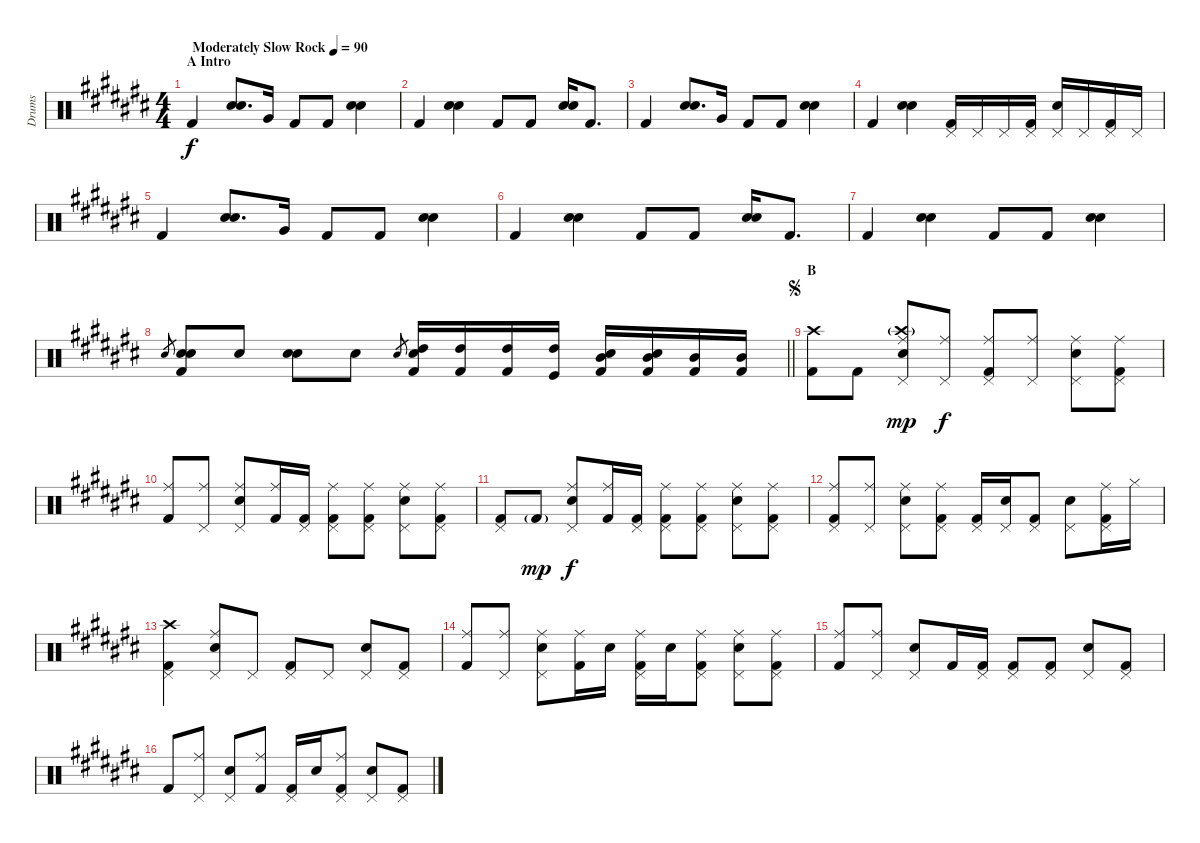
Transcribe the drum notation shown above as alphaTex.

\track ("Drums" "Drums") {instrument percussion}
\staff {score}
\articulation defaults
\ts (4 4)
\section ("" "A Intro")
\tempo (90 "Moderately Slow Rock")
\clef neutral
\ks c# "Kick (hit) 2".4{dy f}
("Hand Clap (hit)" "Snare (hit) 2").8{d} "Very Low Tom (hit)".16 "Kick (hit) 2".8 "Kick (hit) 2".8 ("Hand Clap (hit)" "Snare (hit) 2").4 |
"Kick (hit) 2".4 ("Hand Clap (hit)" "Snare (hit) 2").4 "Kick (hit) 2".8 "Kick (hit) 2".8 ("Hand Clap (hit)" "Snare (hit) 2").16 "Kick (hit) 2".8{d} |
"Kick (hit) 2".4 ("Hand Clap (hit)" "Snare (hit) 2").8{d} "Very Low Tom (hit)".16 "Kick (hit) 2".8 "Kick (hit) 2".8 ("Hand Clap (hit)" "Snare (hit) 2").4 |
"Kick (hit) 2".4 ("Hand Clap (hit)" "Snare (hit) 2").4 ("Kick (hit) 2" "Pedal Hi-Hat (hit)").16 "Pedal Hi-Hat (hit)".16 "Pedal Hi-Hat (hit)".16 ("Kick (hit) 2" "Pedal Hi-Hat (hit)").16 ("Snare (hit) 2" "Pedal Hi-Hat (hit)").16 "Pedal Hi-Hat (hit)".16 ("Kick (hit) 2" "Pedal Hi-Hat (hit)").16 "Pedal Hi-Hat (hit)".16 |
"Kick (hit) 2".4 ("Hand Clap (hit)" "Snare (hit) 2").8{d} "Very Low Tom (hit)".16 "Kick (hit) 2".8 "Kick (hit) 2".8 ("Hand Clap (hit)" "Snare (hit) 2").4 |
"Kick (hit) 2".4 ("Hand Clap (hit)" "Snare (hit) 2").4 "Kick (hit) 2".8 "Kick (hit) 2".8 ("Hand Clap (hit)" "Snare (hit) 2").16 "Kick (hit) 2".8{d} |
"Kick (hit) 2".4 ("Hand Clap (hit)" "Snare (hit) 2").4 "Kick (hit) 2".8 "Kick (hit) 2".8 ("Hand Clap (hit)" "Snare (hit) 2").4 |
\barLineRight lightlight "Snare (hit) 2".8{gr}
("Kick (hit) 2" "Snare (hit) 2" "Hand Clap (hit)").8 "Snare (hit) 2".8 ("Hand Clap (hit)" "Snare (hit) 2").8 "Snare (hit) 2".8 "Snare (hit) 2".8{gr} ("Kick (hit) 2" "Snare (hit) 2" "High Tom (hit)").16 ("Kick (hit) 2" "High Tom (hit)").16 ("Kick (hit) 2" "High Tom (hit)").16 ("Kick (hit)" "High Tom (hit)").16 ("Kick (hit) 2" "Mid Tom (hit)" "Hand Clap (hit)").16 ("Kick (hit) 2" "Snare (hit) 2" "Mid Tom (hit)").16 ("Kick (hit) 2" "Mid Tom (hit)").16 ("Kick (hit) 2" "Mid Tom (hit)").16 |
\section ("" "B")
\jump segno
("Kick (hit) 2" "Crash high (hit)").8 "Kick (hit) 2".8 ("Snare (hit) 2" "Pedal Hi-Hat (hit)" "Crash high (hit)"{g} "Ride (middle)").8{dy mp} ("Pedal Hi-Hat (hit)" "Ride (middle)").8{dy f} ("Kick (hit) 2" "Pedal Hi-Hat (hit)" "Ride (middle)").8 ("Pedal Hi-Hat (hit)" "Ride (middle)").8 ("Snare (hit) 2" "Pedal Hi-Hat (hit)" "Ride (middle)").8 ("Kick (hit) 2" "Pedal Hi-Hat (hit)" "Ride (middle)").8 |
("Kick (hit) 2" "Ride (middle)").8 ("Pedal Hi-Hat (hit)" "Ride (middle)").8 ("Snare (hit) 2" "Pedal Hi-Hat (hit)" "Ride (middle)").8 ("Kick (hit) 2" "Ride (middle)").16 ("Kick (hit) 2" "Pedal Hi-Hat (hit)").16 ("Kick (hit) 2" "Pedal Hi-Hat (hit)" "Ride (middle)").8 ("Kick (hit) 2" "Pedal Hi-Hat (hit)" "Ride (middle)").8 ("Snare (hit) 2" "Pedal Hi-Hat (hit)" "Ride (middle)").8 ("Kick (hit) 2" "Pedal Hi-Hat (hit)" "Ride (middle)").8 |
("Kick (hit) 2" "Pedal Hi-Hat (hit)").8 "Kick (hit) 2"{g}.8{dy mp} ("Snare (hit) 2" "Pedal Hi-Hat (hit)" "Ride (middle)").8{dy f} ("Kick (hit) 2" "Ride (middle)").16 ("Kick (hit) 2" "Pedal Hi-Hat (hit)").16 ("Kick (hit) 2" "Pedal Hi-Hat (hit)" "Ride (middle)").8 ("Kick (hit) 2" "Pedal Hi-Hat (hit)" "Ride (middle)").8 ("Snare (hit) 2" "Pedal Hi-Hat (hit)" "Ride (middle)").8 ("Kick (hit) 2" "Pedal Hi-Hat (hit)" "Ride (middle)").8 |
("Kick (hit) 2" "Pedal Hi-Hat (hit)" "Ride (middle)").8 ("Pedal Hi-Hat (hit)" "Ride (middle)").8 ("Snare (hit) 2" "Pedal Hi-Hat (hit)" "Ride (middle)").8 ("Kick (hit) 2" "Pedal Hi-Hat (hit)" "Ride (middle)").8 ("Kick (hit) 2" "Pedal Hi-Hat (hit)").16 ("Snare (hit) 2" "Pedal Hi-Hat (hit)").16 ("Kick (hit) 2" "Pedal Hi-Hat (hit)").8 ("Snare (hit) 2" "Pedal Hi-Hat (hit)").8 ("Kick (hit) 2" "Pedal Hi-Hat (hit)" "Ride (middle)").16 "Hi-Hat (closed)".16 |
("Kick (hit) 2" "Pedal Hi-Hat (hit)" "Crash high (hit)").4 ("Snare (hit) 2" "Pedal Hi-Hat (hit)" "Ride (middle)").8 "Pedal Hi-Hat (hit)".8 ("Kick (hit) 2" "Pedal Hi-Hat (hit)").8 "Pedal Hi-Hat (hit)".8 ("Snare (hit) 2" "Pedal Hi-Hat (hit)").8 ("Kick (hit) 2" "Pedal Hi-Hat (hit)").8 |
("Kick (hit) 2" "Ride (middle)").8 ("Pedal Hi-Hat (hit)" "Ride (middle)").8 ("Snare (hit) 2" "Pedal Hi-Hat (hit)" "Ride (middle)").8 ("Kick (hit) 2" "Ride (middle)").16 "Snare (hit) 2".16 ("Kick (hit) 2" "Pedal Hi-Hat (hit)" "Ride (middle)").16 "Snare (hit) 2".16 ("Kick (hit) 2" "Pedal Hi-Hat (hit)" "Ride (middle)").8 ("Snare (hit) 2" "Pedal Hi-Hat (hit)" "Ride (middle)").8 ("Kick (hit) 2" "Pedal Hi-Hat (hit)" "Ride (middle)").8 |
("Kick (hit) 2" "Ride (middle)").8 ("Pedal Hi-Hat (hit)" "Ride (middle)").8 ("Snare (hit) 2" "Pedal Hi-Hat (hit)").8 "Kick (hit) 2".16 ("Kick (hit) 2" "Pedal Hi-Hat (hit)").16 ("Kick (hit) 2" "Pedal Hi-Hat (hit)").8 ("Kick (hit) 2" "Pedal Hi-Hat (hit)").8 ("Snare (hit) 2" "Pedal Hi-Hat (hit)").8 ("Kick (hit) 2" "Pedal Hi-Hat (hit)").8 |
"Kick (hit) 2".8 ("Pedal Hi-Hat (hit)" "Ride (middle)").8 ("Snare (hit) 2" "Pedal Hi-Hat (hit)").8 ("Kick (hit) 2" "Ride (middle)").8 ("Kick (hit) 2" "Pedal Hi-Hat (hit)").16 "Snare (hit) 2".16 ("Kick (hit) 2" "Pedal Hi-Hat (hit)" "Ride (middle)").8 ("Snare (hit) 2" "Pedal Hi-Hat (hit)").8 ("Kick (hit) 2" "Pedal Hi-Hat (hit)").8
